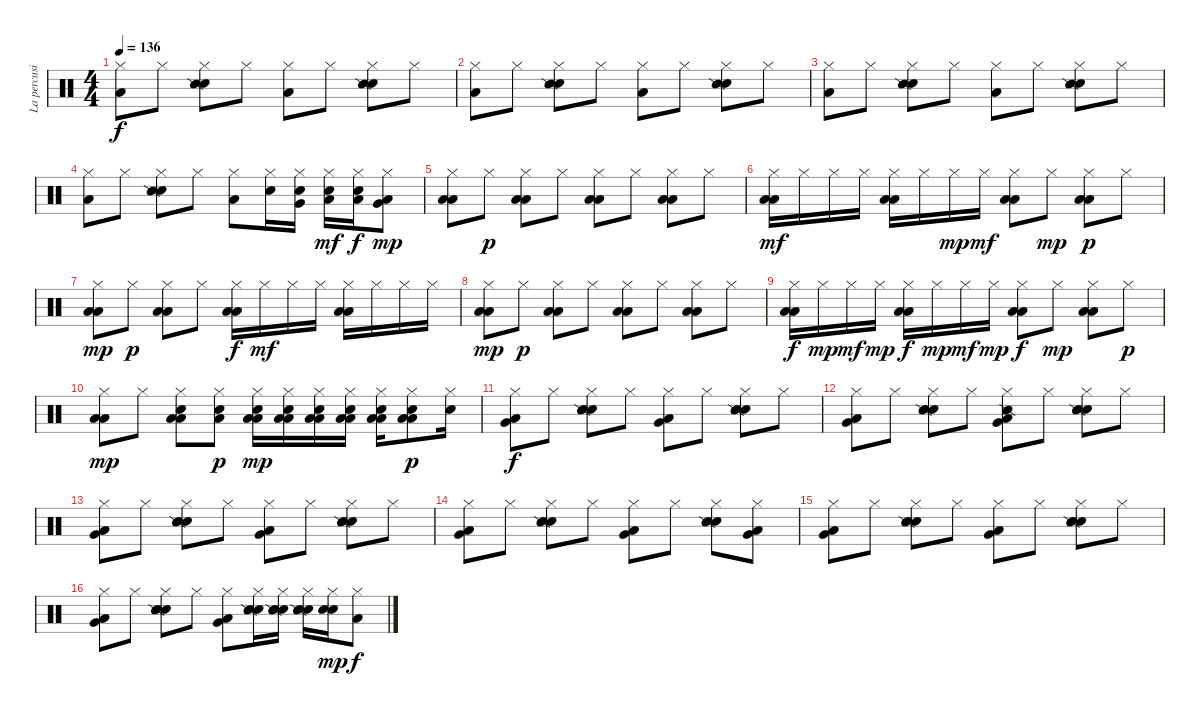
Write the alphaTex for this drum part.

\track ("La percusión" "La percusi") {instrument percussion}
\staff {score}
\articulation defaults
\ts (4 4)
\tempo 136
\clef neutral
\ks c
("Hi-Hat (closed)" "Low Floor Tom (hit)").8{dy f} "Hi-Hat (closed)".8 ("Hi-Hat (closed)" "Snare (hit) 2" "Snare (side stick) 2").8 "Hi-Hat (closed)".8 ("Hi-Hat (closed)" "Low Floor Tom (hit)").8 "Hi-Hat (closed)".8 ("Hi-Hat (closed)" "Snare (hit) 2" "Snare (side stick) 2").8 "Hi-Hat (closed)".8 |
("Hi-Hat (closed)" "Low Floor Tom (hit)").8 "Hi-Hat (closed)".8 ("Hi-Hat (closed)" "Snare (hit) 2" "Snare (side stick) 2").8 "Hi-Hat (closed)".8 ("Hi-Hat (closed)" "Low Floor Tom (hit)").8 "Hi-Hat (closed)".8 ("Hi-Hat (closed)" "Snare (hit) 2" "Snare (side stick) 2").8 "Hi-Hat (closed)".8 |
("Hi-Hat (closed)" "Low Floor Tom (hit)").8 "Hi-Hat (closed)".8 ("Hi-Hat (closed)" "Snare (hit) 2" "Snare (side stick) 2").8 "Hi-Hat (closed)".8 ("Hi-Hat (closed)" "Low Floor Tom (hit)").8 "Hi-Hat (closed)".8 ("Hi-Hat (closed)" "Snare (hit) 2" "Snare (side stick) 2").8 "Hi-Hat (closed)".8 |
("Hi-Hat (closed)" "Low Floor Tom (hit)").8 "Hi-Hat (closed)".8 ("Hi-Hat (closed)" "Snare (hit) 2" "Snare (side stick) 2").8 "Hi-Hat (closed)".8 ("Hi-Hat (closed)" "Low Floor Tom (hit)").8 ("Hi-Hat (closed)" "Snare (hit) 2").16 ("Hi-Hat (closed)" "Snare (hit) 2" "Very Low Tom (hit)").16 ("Hi-Hat (closed)" "Snare (hit) 2" "Low Floor Tom (hit)").16{dy mf} ("Hi-Hat (closed)" "Snare (hit) 2" "Low Floor Tom (hit)").16{dy f} ("Hi-Hat (closed)" "Very Low Tom (hit)" "Low Floor Tom (hit)").8{dy mp} |
("Hi-Hat (closed)" "Low Floor Tom (hit)" "Low Floor Tom (hit)").8 "Hi-Hat (closed)".8{dy p} ("Hi-Hat (closed)" "Low Floor Tom (hit)" "Low Floor Tom (hit)").8 "Hi-Hat (closed)".8 ("Hi-Hat (closed)" "Low Floor Tom (hit)" "Low Floor Tom (hit)").8 "Hi-Hat (closed)".8 ("Hi-Hat (closed)" "Low Floor Tom (hit)" "Low Floor Tom (hit)").8 "Hi-Hat (closed)".8 |
("Hi-Hat (closed)" "Low Floor Tom (hit)" "Low Floor Tom (hit)").16{dy mf} "Hi-Hat (closed)".16 "Hi-Hat (closed)".16 "Hi-Hat (closed)".16 ("Hi-Hat (closed)" "Low Floor Tom (hit)" "Low Floor Tom (hit)").16 "Hi-Hat (closed)".16 "Hi-Hat (closed)".16{dy mp} "Hi-Hat (closed)".16{dy mf} ("Hi-Hat (closed)" "Low Floor Tom (hit)" "Low Floor Tom (hit)").8 "Hi-Hat (closed)".8{dy mp} ("Hi-Hat (closed)" "Low Floor Tom (hit)" "Low Floor Tom (hit)").8{dy p} "Hi-Hat (closed)".8 |
("Hi-Hat (closed)" "Low Floor Tom (hit)" "Low Floor Tom (hit)").8{dy mp} "Hi-Hat (closed)".8{dy p} ("Hi-Hat (closed)" "Low Floor Tom (hit)" "Low Floor Tom (hit)").8 "Hi-Hat (closed)".8 ("Hi-Hat (closed)" "Low Floor Tom (hit)" "Low Floor Tom (hit)").16{dy f} "Hi-Hat (closed)".16{dy mf} "Hi-Hat (closed)".16 "Hi-Hat (closed)".16 ("Hi-Hat (closed)" "Low Floor Tom (hit)" "Low Floor Tom (hit)").16 "Hi-Hat (closed)".16 "Hi-Hat (closed)".16 "Hi-Hat (closed)".16 |
("Hi-Hat (closed)" "Low Floor Tom (hit)" "Low Floor Tom (hit)").8{dy mp} "Hi-Hat (closed)".8{dy p} ("Hi-Hat (closed)" "Low Floor Tom (hit)" "Low Floor Tom (hit)").8 "Hi-Hat (closed)".8 ("Hi-Hat (closed)" "Low Floor Tom (hit)" "Low Floor Tom (hit)").8 "Hi-Hat (closed)".8 ("Hi-Hat (closed)" "Low Floor Tom (hit)" "Low Floor Tom (hit)").8 "Hi-Hat (closed)".8 |
("Hi-Hat (closed)" "Low Floor Tom (hit)" "Low Floor Tom (hit)").16{dy f} "Hi-Hat (closed)".16{dy mp} "Hi-Hat (closed)".16{dy mf} "Hi-Hat (closed)".16{dy mp} ("Hi-Hat (closed)" "Low Floor Tom (hit)" "Low Floor Tom (hit)").16{dy f} "Hi-Hat (closed)".16{dy mp} "Hi-Hat (closed)".16{dy mf} "Hi-Hat (closed)".16{dy mp} ("Hi-Hat (closed)" "Low Floor Tom (hit)" "Low Floor Tom (hit)").8{dy f} "Hi-Hat (closed)".8{dy mp} ("Hi-Hat (closed)" "Low Floor Tom (hit)" "Low Floor Tom (hit)").8 "Hi-Hat (closed)".8{dy p} |
("Hi-Hat (closed)" "Low Floor Tom (hit)" "Low Floor Tom (hit)").8{dy mp} "Hi-Hat (closed)".8 ("Hi-Hat (closed)" "Low Floor Tom (hit)" "Low Floor Tom (hit)" "Snare (hit) 2").8 ("Hi-Hat (closed)" "Low Floor Tom (hit)" "Snare (hit) 2").8{dy p} ("Hi-Hat (closed)" "Low Floor Tom (hit)" "Low Floor Tom (hit)" "Snare (hit) 2").16{dy mp} ("Hi-Hat (closed)" "Low Floor Tom (hit)" "Low Floor Tom (hit)" "Snare (hit) 2").16 ("Hi-Hat (closed)" "Low Floor Tom (hit)" "Low Floor Tom (hit)" "Snare (hit) 2").16 ("Hi-Hat (closed)" "Low Floor Tom (hit)" "Low Floor Tom (hit)" "Snare (hit) 2").16 ("Hi-Hat (closed)" "Low Floor Tom (hit)" "Low Floor Tom (hit)" "Snare (hit) 2").16 ("Hi-Hat (closed)" "Low Floor Tom (hit)" "Low Floor Tom (hit)" "Snare (hit) 2").8{dy p} ("Hi-Hat (closed)" "Snare (hit) 2").16 |
("Hi-Hat (closed)" "Low Floor Tom (hit)" "Very Low Tom (hit)").8{dy f} "Hi-Hat (closed)".8 ("Hi-Hat (closed)" "Snare (hit) 2" "Snare (hit) 2" "Snare (side stick) 2").8 "Hi-Hat (closed)".8 ("Hi-Hat (closed)" "Low Floor Tom (hit)" "Very Low Tom (hit)").8 "Hi-Hat (closed)".8 ("Hi-Hat (closed)" "Snare (hit) 2" "Snare (hit) 2" "Snare (side stick) 2").8 "Hi-Hat (closed)".8 |
("Hi-Hat (closed)" "Low Floor Tom (hit)" "Very Low Tom (hit)").8 "Hi-Hat (closed)".8 ("Hi-Hat (closed)" "Snare (hit) 2" "Snare (hit) 2" "Snare (side stick) 2").8 "Hi-Hat (closed)".8 ("Hi-Hat (closed)" "Low Floor Tom (hit)" "Very Low Tom (hit)" "Snare (side stick) 2").8 "Hi-Hat (closed)".8 ("Hi-Hat (closed)" "Snare (hit) 2" "Snare (hit) 2" "Snare (side stick) 2").8 "Hi-Hat (closed)".8 |
("Hi-Hat (closed)" "Low Floor Tom (hit)" "Very Low Tom (hit)").8 "Hi-Hat (closed)".8 ("Hi-Hat (closed)" "Snare (hit) 2" "Snare (hit) 2" "Snare (side stick) 2").8 "Hi-Hat (closed)".8 ("Hi-Hat (closed)" "Low Floor Tom (hit)" "Very Low Tom (hit)").8 "Hi-Hat (closed)".8 ("Hi-Hat (closed)" "Snare (hit) 2" "Snare (hit) 2" "Snare (side stick) 2").8 "Hi-Hat (closed)".8 |
("Hi-Hat (closed)" "Low Floor Tom (hit)" "Very Low Tom (hit)").8 "Hi-Hat (closed)".8 ("Hi-Hat (closed)" "Snare (hit) 2" "Snare (hit) 2" "Snare (side stick) 2").8 "Hi-Hat (closed)".8 ("Hi-Hat (closed)" "Low Floor Tom (hit)" "Very Low Tom (hit)").8 "Hi-Hat (closed)".8 ("Hi-Hat (closed)" "Snare (hit) 2" "Snare (hit) 2" "Snare (side stick) 2").8 ("Hi-Hat (closed)" "Low Floor Tom (hit)" "Very Low Tom (hit)").8 |
("Hi-Hat (closed)" "Low Floor Tom (hit)" "Very Low Tom (hit)").8 "Hi-Hat (closed)".8 ("Hi-Hat (closed)" "Snare (hit) 2" "Snare (hit) 2" "Snare (side stick) 2").8 "Hi-Hat (closed)".8 ("Hi-Hat (closed)" "Low Floor Tom (hit)" "Very Low Tom (hit)").8 "Hi-Hat (closed)".8 ("Hi-Hat (closed)" "Snare (hit) 2" "Snare (hit) 2" "Snare (side stick) 2").8 "Hi-Hat (closed)".8 |
("Hi-Hat (closed)" "Low Floor Tom (hit)" "Very Low Tom (hit)").8 "Hi-Hat (closed)".8 ("Hi-Hat (closed)" "Snare (hit) 2" "Snare (hit) 2" "Snare (side stick) 2").8 "Hi-Hat (closed)".8 ("Hi-Hat (closed)" "Low Floor Tom (hit)" "Very Low Tom (hit)").8 ("Hi-Hat (closed)" "Snare (hit) 2" "Snare (hit) 2" "Snare (side stick) 2").16 ("Hi-Hat (closed)" "Snare (hit) 2" "Snare (hit) 2" "Snare (side stick) 2").16 ("Hi-Hat (closed)" "Snare (hit) 2" "Snare (hit) 2" "Snare (side stick) 2").16 ("Hi-Hat (closed)" "Snare (hit) 2" "Snare (hit) 2").16{dy mp} ("Hi-Hat (closed)" "Low Floor Tom (hit)").8{dy f}
